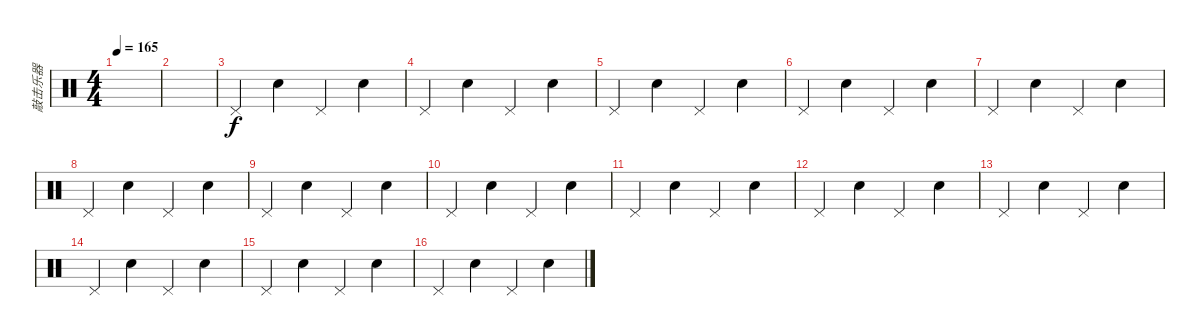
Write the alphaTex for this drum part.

\track ("敲击乐器" "敲击乐器") {instrument percussion}
\staff {score}
\articulation defaults
\ts (4 4)
\tempo 165
\clef neutral
\ks c
|
|
"Pedal Hi-Hat (hit)".4 "Snare (hit) 2".4 "Pedal Hi-Hat (hit)".4 "Snare (hit) 2".4 |
"Pedal Hi-Hat (hit)".4 "Snare (hit) 2".4 "Pedal Hi-Hat (hit)".4 "Snare (hit) 2".4 |
"Pedal Hi-Hat (hit)".4 "Snare (hit) 2".4 "Pedal Hi-Hat (hit)".4 "Snare (hit) 2".4 |
"Pedal Hi-Hat (hit)".4 "Snare (hit) 2".4 "Pedal Hi-Hat (hit)".4 "Snare (hit) 2".4 |
"Pedal Hi-Hat (hit)".4 "Snare (hit) 2".4 "Pedal Hi-Hat (hit)".4 "Snare (hit) 2".4 |
"Pedal Hi-Hat (hit)".4 "Snare (hit) 2".4 "Pedal Hi-Hat (hit)".4 "Snare (hit) 2".4 |
"Pedal Hi-Hat (hit)".4 "Snare (hit) 2".4 "Pedal Hi-Hat (hit)".4 "Snare (hit) 2".4 |
"Pedal Hi-Hat (hit)".4 "Snare (hit) 2".4 "Pedal Hi-Hat (hit)".4 "Snare (hit) 2".4 |
"Pedal Hi-Hat (hit)".4 "Snare (hit) 2".4 "Pedal Hi-Hat (hit)".4 "Snare (hit) 2".4 |
"Pedal Hi-Hat (hit)".4 "Snare (hit) 2".4 "Pedal Hi-Hat (hit)".4 "Snare (hit) 2".4 |
"Pedal Hi-Hat (hit)".4 "Snare (hit) 2".4 "Pedal Hi-Hat (hit)".4 "Snare (hit) 2".4 |
"Pedal Hi-Hat (hit)".4 "Snare (hit) 2".4 "Pedal Hi-Hat (hit)".4 "Snare (hit) 2".4 |
"Pedal Hi-Hat (hit)".4 "Snare (hit) 2".4 "Pedal Hi-Hat (hit)".4 "Snare (hit) 2".4 |
"Pedal Hi-Hat (hit)".4 "Snare (hit) 2".4 "Pedal Hi-Hat (hit)".4 "Snare (hit) 2".4
